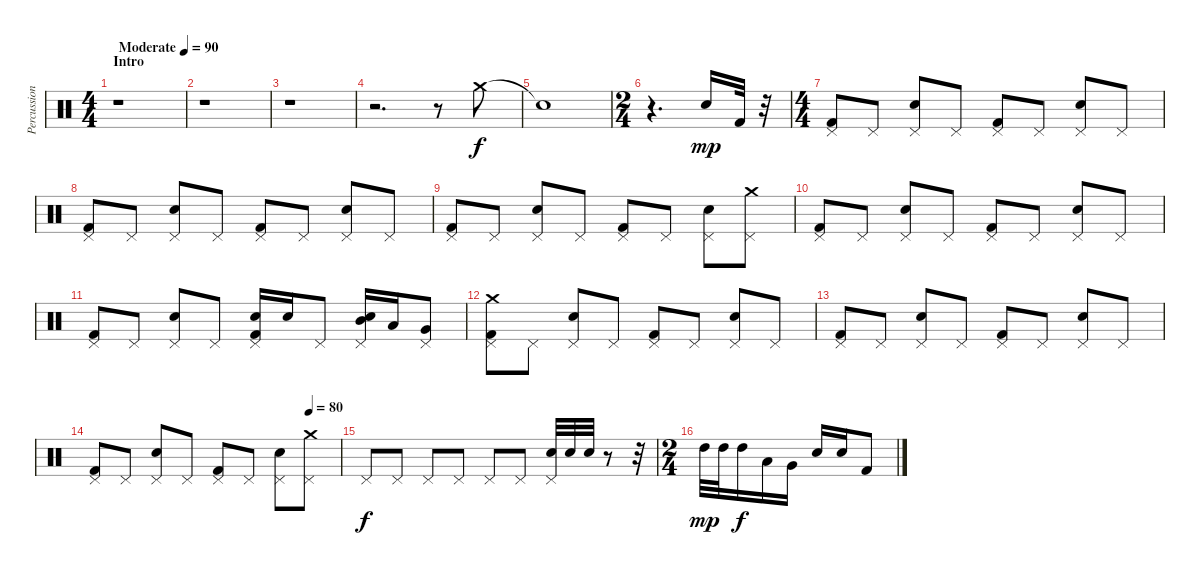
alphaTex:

\track ("Percussion" "Percussion") {instrument percussion}
\staff {score}
\articulation defaults
\ts (4 4)
\section ("" "Intro")
\tempo (90 "Moderate")
\tempo 80
\tempo (90 "Moderate")
\clef neutral
\ks c
r.1{dy f} |
r.1 |
r.1 |
r.2{d} r.8 "Crash medium (hit)".8 |
"Snare (hit)"{t}.1 |
\ts (2 4)
r.4{d} "Electric Snare (hit)".16{dy mp} "Kick (hit) 2".32 r.32 |
\ts (4 4)
("Kick (hit) 2" "Pedal Hi-Hat (hit)").8 "Pedal Hi-Hat (hit)".8 ("Electric Snare (hit)" "Pedal Hi-Hat (hit)").8 "Pedal Hi-Hat (hit)".8 ("Kick (hit) 2" "Pedal Hi-Hat (hit)").8 "Pedal Hi-Hat (hit)".8 ("Electric Snare (hit)" "Pedal Hi-Hat (hit)").8 "Pedal Hi-Hat (hit)".8 |
("Kick (hit) 2" "Pedal Hi-Hat (hit)").8 "Pedal Hi-Hat (hit)".8 ("Electric Snare (hit)" "Pedal Hi-Hat (hit)").8 "Pedal Hi-Hat (hit)".8 ("Kick (hit) 2" "Pedal Hi-Hat (hit)").8 "Pedal Hi-Hat (hit)".8 ("Electric Snare (hit)" "Pedal Hi-Hat (hit)").8 "Pedal Hi-Hat (hit)".8 |
("Kick (hit) 2" "Pedal Hi-Hat (hit)").8 "Pedal Hi-Hat (hit)".8 ("Electric Snare (hit)" "Pedal Hi-Hat (hit)").8 "Pedal Hi-Hat (hit)".8 ("Kick (hit) 2" "Pedal Hi-Hat (hit)").8 "Pedal Hi-Hat (hit)".8 ("Electric Snare (hit)" "Pedal Hi-Hat (hit)").8 ("Crash medium (hit)" "Pedal Hi-Hat (hit)").8 |
("Kick (hit) 2" "Pedal Hi-Hat (hit)").8 "Pedal Hi-Hat (hit)".8 ("Electric Snare (hit)" "Pedal Hi-Hat (hit)").8 "Pedal Hi-Hat (hit)".8 ("Kick (hit) 2" "Pedal Hi-Hat (hit)").8 "Pedal Hi-Hat (hit)".8 ("Electric Snare (hit)" "Pedal Hi-Hat (hit)").8 "Pedal Hi-Hat (hit)".8 |
("Kick (hit) 2" "Pedal Hi-Hat (hit)").8 "Pedal Hi-Hat (hit)".8 ("Electric Snare (hit)" "Pedal Hi-Hat (hit)").8 "Pedal Hi-Hat (hit)".8 ("Kick (hit) 2" "Pedal Hi-Hat (hit)" "Electric Snare (hit)").16 "Electric Snare (hit)".16 "Pedal Hi-Hat (hit)".8 ("Electric Snare (hit)" "Pedal Hi-Hat (hit)" "Mid Tom (hit)").16 "Low Tom (hit)".16 ("Pedal Hi-Hat (hit)" "Very Low Tom (hit)").8 |
("Kick (hit) 2" "Pedal Hi-Hat (hit)" "Crash medium (hit)").8 "Pedal Hi-Hat (hit)".8 ("Electric Snare (hit)" "Pedal Hi-Hat (hit)").8 "Pedal Hi-Hat (hit)".8 ("Kick (hit) 2" "Pedal Hi-Hat (hit)").8 "Pedal Hi-Hat (hit)".8 ("Electric Snare (hit)" "Pedal Hi-Hat (hit)").8 "Pedal Hi-Hat (hit)".8 |
("Kick (hit) 2" "Pedal Hi-Hat (hit)").8 "Pedal Hi-Hat (hit)".8 ("Electric Snare (hit)" "Pedal Hi-Hat (hit)").8 "Pedal Hi-Hat (hit)".8 ("Kick (hit) 2" "Pedal Hi-Hat (hit)").8 "Pedal Hi-Hat (hit)".8 ("Electric Snare (hit)" "Pedal Hi-Hat (hit)").8 "Pedal Hi-Hat (hit)".8 |
\tempo (80 0.875)
("Kick (hit) 2" "Pedal Hi-Hat (hit)").8 "Pedal Hi-Hat (hit)".8 ("Electric Snare (hit)" "Pedal Hi-Hat (hit)").8 "Pedal Hi-Hat (hit)".8 ("Kick (hit) 2" "Pedal Hi-Hat (hit)").8 "Pedal Hi-Hat (hit)".8 ("Electric Snare (hit)" "Pedal Hi-Hat (hit)").8 ("Pedal Hi-Hat (hit)" "Crash medium (hit)").8 |
"Pedal Hi-Hat (hit)".8{dy f} "Pedal Hi-Hat (hit)".8 "Pedal Hi-Hat (hit)".8 "Pedal Hi-Hat (hit)".8 "Pedal Hi-Hat (hit)".8 "Pedal Hi-Hat (hit)".8 ("Electric Snare (hit)" "Pedal Hi-Hat (hit)").32 "Electric Snare (hit)".32 "Electric Snare (hit)".32 r.8 r.32 |
\ts (2 4)
"High Tom (hit)".32{dy mp} "High Tom (hit)".32 "High Tom (hit)".16{dy f} "Low Tom (hit)".16 "Very Low Tom (hit)".16 "Electric Snare (hit)".16 "Electric Snare (hit)".16 "Kick (hit) 2".8
